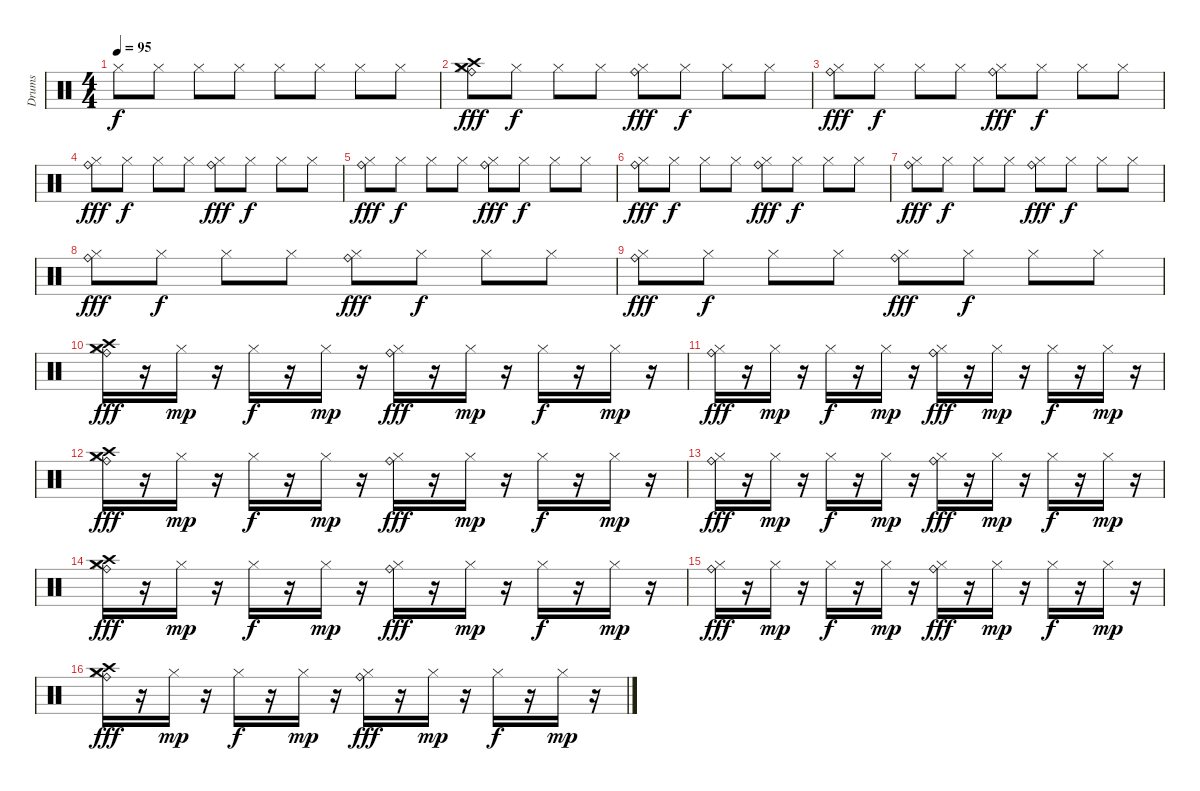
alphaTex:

\bracketExtendMode groupsimilarinstruments
\otherSystemsTrackNameOrientation horizontal
\track ("Drumkit" "Drums") {instrument percussion}
\staff {score}
\articulation defaults
\ts (4 4)
\tempo 95
\clef neutral
\ks c "Hi-Hat (closed)".8{dy f} "Hi-Hat (closed)".8 "Hi-Hat (closed)".8 "Hi-Hat (closed)".8 "Hi-Hat (closed)".8 "Hi-Hat (closed)".8 "Hi-Hat (closed)".8 "Hi-Hat (closed)".8
|
("Ride (bell)" "Crash medium (hit)" "Crash high (hit)" "Hi-Hat (closed)").8{dy fff} "Hi-Hat (closed)".8{dy f} "Hi-Hat (closed)".8 "Hi-Hat (closed)".8 ("Ride (bell)" "Hi-Hat (closed)").8{dy fff} "Hi-Hat (closed)".8{dy f} "Hi-Hat (closed)".8 "Hi-Hat (closed)".8 |
("Ride (bell)" "Hi-Hat (closed)").8{dy fff} "Hi-Hat (closed)".8{dy f} "Hi-Hat (closed)".8 "Hi-Hat (closed)".8 ("Ride (bell)" "Hi-Hat (closed)").8{dy fff} "Hi-Hat (closed)".8{dy f} "Hi-Hat (closed)".8 "Hi-Hat (closed)".8 |
("Ride (bell)" "Hi-Hat (closed)").8{dy fff} "Hi-Hat (closed)".8{dy f} "Hi-Hat (closed)".8 "Hi-Hat (closed)".8 ("Ride (bell)" "Hi-Hat (closed)").8{dy fff} "Hi-Hat (closed)".8{dy f} "Hi-Hat (closed)".8 "Hi-Hat (closed)".8 |
("Ride (bell)" "Hi-Hat (closed)").8{dy fff} "Hi-Hat (closed)".8{dy f} "Hi-Hat (closed)".8 "Hi-Hat (closed)".8 ("Ride (bell)" "Hi-Hat (closed)").8{dy fff} "Hi-Hat (closed)".8{dy f} "Hi-Hat (closed)".8 "Hi-Hat (closed)".8 |
("Ride (bell)" "Hi-Hat (closed)").8{dy fff} "Hi-Hat (closed)".8{dy f} "Hi-Hat (closed)".8 "Hi-Hat (closed)".8 ("Ride (bell)" "Hi-Hat (closed)").8{dy fff} "Hi-Hat (closed)".8{dy f} "Hi-Hat (closed)".8 "Hi-Hat (closed)".8 |
("Ride (bell)" "Hi-Hat (closed)").8{dy fff} "Hi-Hat (closed)".8{dy f} "Hi-Hat (closed)".8 "Hi-Hat (closed)".8 ("Ride (bell)" "Hi-Hat (closed)").8{dy fff} "Hi-Hat (closed)".8{dy f} "Hi-Hat (closed)".8 "Hi-Hat (closed)".8 |
("Ride (bell)" "Hi-Hat (closed)").8{dy fff} "Hi-Hat (closed)".8{dy f} "Hi-Hat (closed)".8 "Hi-Hat (closed)".8 ("Ride (bell)" "Hi-Hat (closed)").8{dy fff} "Hi-Hat (closed)".8{dy f} "Hi-Hat (closed)".8 "Hi-Hat (closed)".8 |
("Ride (bell)" "Hi-Hat (closed)").8{dy fff} "Hi-Hat (closed)".8{dy f} "Hi-Hat (closed)".8 "Hi-Hat (closed)".8 ("Ride (bell)" "Hi-Hat (closed)").8{dy fff} "Hi-Hat (closed)".8{dy f} "Hi-Hat (closed)".8 "Hi-Hat (closed)".8 |
("Crash medium (hit)" "Crash high (hit)" "Ride (bell)" "Hi-Hat (closed)").16{dy fff} r.16 "Hi-Hat (closed)".16{dy mp} r.16 "Hi-Hat (closed)".16{dy f} r.16 "Hi-Hat (closed)".16{dy mp} r.16 ("Ride (bell)" "Hi-Hat (closed)").16{dy fff} r.16 "Hi-Hat (closed)".16{dy mp} r.16 "Hi-Hat (closed)".16{dy f} r.16 "Hi-Hat (closed)".16{dy mp} r.16 |
("Ride (bell)" "Hi-Hat (closed)").16{dy fff} r.16 "Hi-Hat (closed)".16{dy mp} r.16 "Hi-Hat (closed)".16{dy f} r.16 "Hi-Hat (closed)".16{dy mp} r.16 ("Ride (bell)" "Hi-Hat (closed)").16{dy fff} r.16 "Hi-Hat (closed)".16{dy mp} r.16 "Hi-Hat (closed)".16{dy f} r.16 "Hi-Hat (closed)".16{dy mp} r.16 |
("Crash high (hit)" "Crash medium (hit)" "Ride (bell)" "Hi-Hat (closed)").16{dy fff} r.16 "Hi-Hat (closed)".16{dy mp} r.16 "Hi-Hat (closed)".16{dy f} r.16 "Hi-Hat (closed)".16{dy mp} r.16 ("Ride (bell)" "Hi-Hat (closed)").16{dy fff} r.16 "Hi-Hat (closed)".16{dy mp} r.16 "Hi-Hat (closed)".16{dy f} r.16 "Hi-Hat (closed)".16{dy mp} r.16 |
("Ride (bell)" "Hi-Hat (closed)").16{dy fff} r.16 "Hi-Hat (closed)".16{dy mp} r.16 "Hi-Hat (closed)".16{dy f} r.16 "Hi-Hat (closed)".16{dy mp} r.16 ("Ride (bell)" "Hi-Hat (closed)").16{dy fff} r.16 "Hi-Hat (closed)".16{dy mp} r.16 "Hi-Hat (closed)".16{dy f} r.16 "Hi-Hat (closed)".16{dy mp} r.16 |
("Crash high (hit)" "Crash medium (hit)" "Ride (bell)" "Hi-Hat (closed)").16{dy fff} r.16 "Hi-Hat (closed)".16{dy mp} r.16 "Hi-Hat (closed)".16{dy f} r.16 "Hi-Hat (closed)".16{dy mp} r.16 ("Ride (bell)" "Hi-Hat (closed)").16{dy fff} r.16 "Hi-Hat (closed)".16{dy mp} r.16 "Hi-Hat (closed)".16{dy f} r.16 "Hi-Hat (closed)".16{dy mp} r.16 |
("Ride (bell)" "Hi-Hat (closed)").16{dy fff} r.16 "Hi-Hat (closed)".16{dy mp} r.16 "Hi-Hat (closed)".16{dy f} r.16 "Hi-Hat (closed)".16{dy mp} r.16 ("Ride (bell)" "Hi-Hat (closed)").16{dy fff} r.16 "Hi-Hat (closed)".16{dy mp} r.16 "Hi-Hat (closed)".16{dy f} r.16 "Hi-Hat (closed)".16{dy mp} r.16 |
("Crash medium (hit)" "Crash high (hit)" "Ride (bell)" "Hi-Hat (closed)").16{dy fff} r.16 "Hi-Hat (closed)".16{dy mp} r.16 "Hi-Hat (closed)".16{dy f} r.16 "Hi-Hat (closed)".16{dy mp} r.16 ("Ride (bell)" "Hi-Hat (closed)").16{dy fff} r.16 "Hi-Hat (closed)".16{dy mp} r.16 "Hi-Hat (closed)".16{dy f} r.16 "Hi-Hat (closed)".16{dy mp} r.16
